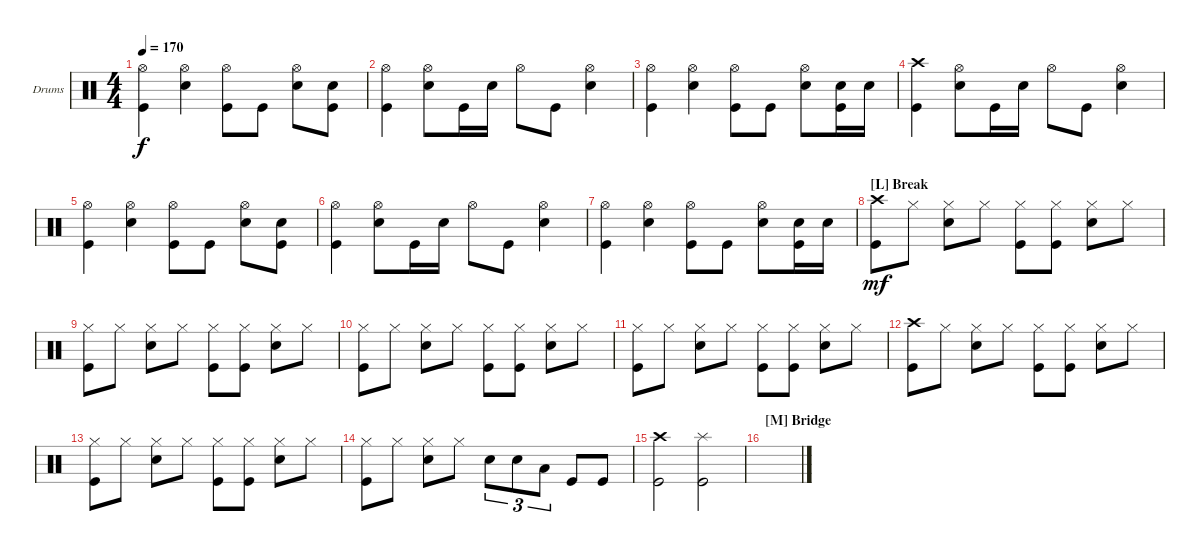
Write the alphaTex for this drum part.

\defaultSystemsLayout 4
\bracketExtendMode groupsimilarinstruments
\firstSystemTrackNameOrientation horizontal
\otherSystemsTrackNameOrientation horizontal
\track ("Drumkit" "Drums") {instrument percussion}
\staff {score}
\articulation defaults
\ts (4 4)
\tempo 170
\clef neutral
\ks c
("Hi-Hat (open)" "Kick (hit)").4{dy f} ("Hi-Hat (open)" "Snare (hit) 2").4 ("Hi-Hat (open)" "Kick (hit)").8 "Kick (hit)".8 ("Hi-Hat (open)" "Snare (hit) 2").8 ("Snare (hit) 2" "Kick (hit)").8 |
("Hi-Hat (open)" "Kick (hit)").4 ("Hi-Hat (open)" "Snare (hit) 2").8 "Kick (hit)".16 "Snare (hit) 2".16 "Hi-Hat (open)".8 "Kick (hit)".8 ("Hi-Hat (open)" "Snare (hit) 2").4 |
("Hi-Hat (open)" "Kick (hit)").4 ("Hi-Hat (open)" "Snare (hit) 2").4 ("Hi-Hat (open)" "Kick (hit)").8 "Kick (hit)".8 ("Hi-Hat (open)" "Snare (hit) 2").8 ("Snare (hit) 2" "Kick (hit)").16 "Snare (hit) 2".16 |
("Crash high (hit)" "Kick (hit)").4 ("Hi-Hat (open)" "Snare (hit) 2").8 "Kick (hit)".16 "Snare (hit) 2".16 "Hi-Hat (open)".8 "Kick (hit)".8 ("Hi-Hat (open)" "Snare (hit) 2").4 |
("Hi-Hat (open)" "Kick (hit)").4 ("Hi-Hat (open)" "Snare (hit) 2").4 ("Hi-Hat (open)" "Kick (hit)").8 "Kick (hit)".8 ("Hi-Hat (open)" "Snare (hit) 2").8 ("Snare (hit) 2" "Kick (hit)").8 |
("Hi-Hat (open)" "Kick (hit)").4 ("Hi-Hat (open)" "Snare (hit) 2").8 "Kick (hit)".16 "Snare (hit) 2".16 "Hi-Hat (open)".8 "Kick (hit)".8 ("Hi-Hat (open)" "Snare (hit) 2").4 |
("Hi-Hat (open)" "Kick (hit)").4 ("Hi-Hat (open)" "Snare (hit) 2").4 ("Hi-Hat (open)" "Kick (hit)").8 "Kick (hit)".8 ("Hi-Hat (open)" "Snare (hit) 2").8 ("Snare (hit) 2" "Kick (hit)").16 "Snare (hit) 2".16 |
\section ("L" "Break")
("Kick (hit)" "Crash high (hit)").8{dy mf} "Hi-Hat (closed)".8 ("Hi-Hat (closed)" "Snare (hit) 2").8 "Hi-Hat (closed)".8 ("Hi-Hat (closed)" "Kick (hit)").8 ("Hi-Hat (closed)" "Kick (hit)").8 ("Hi-Hat (closed)" "Snare (hit) 2").8 "Hi-Hat (closed)".8 |
("Kick (hit)" "Hi-Hat (closed)").8 "Hi-Hat (closed)".8 ("Hi-Hat (closed)" "Snare (hit) 2").8 "Hi-Hat (closed)".8 ("Hi-Hat (closed)" "Kick (hit)").8 ("Hi-Hat (closed)" "Kick (hit)").8 ("Hi-Hat (closed)" "Snare (hit) 2").8 "Hi-Hat (closed)".8 |
("Kick (hit)" "Hi-Hat (closed)").8 "Hi-Hat (closed)".8 ("Hi-Hat (closed)" "Snare (hit) 2").8 "Hi-Hat (closed)".8 ("Hi-Hat (closed)" "Kick (hit)").8 ("Hi-Hat (closed)" "Kick (hit)").8 ("Hi-Hat (closed)" "Snare (hit) 2").8 "Hi-Hat (closed)".8 |
("Kick (hit)" "Hi-Hat (closed)").8 "Hi-Hat (closed)".8 ("Hi-Hat (closed)" "Snare (hit) 2").8 "Hi-Hat (closed)".8 ("Hi-Hat (closed)" "Kick (hit)").8 ("Hi-Hat (closed)" "Kick (hit)").8 ("Hi-Hat (closed)" "Snare (hit) 2").8 "Hi-Hat (closed)".8 |
("Kick (hit)" "Crash high (hit)").8 "Hi-Hat (closed)".8 ("Hi-Hat (closed)" "Snare (hit) 2").8 "Hi-Hat (closed)".8 ("Hi-Hat (closed)" "Kick (hit)").8 ("Hi-Hat (closed)" "Kick (hit)").8 ("Hi-Hat (closed)" "Snare (hit) 2").8 "Hi-Hat (closed)".8 |
("Kick (hit)" "Hi-Hat (closed)").8 "Hi-Hat (closed)".8 ("Hi-Hat (closed)" "Snare (hit) 2").8 "Hi-Hat (closed)".8 ("Hi-Hat (closed)" "Kick (hit)").8 ("Hi-Hat (closed)" "Kick (hit)").8 ("Hi-Hat (closed)" "Snare (hit) 2").8 "Hi-Hat (closed)".8 |
("Kick (hit)" "Hi-Hat (closed)").8 "Hi-Hat (closed)".8 ("Hi-Hat (closed)" "Snare (hit) 2").8 "Hi-Hat (closed)".8 "Snare (hit) 2".8{tu (3 2)} "Snare (hit) 2".8{tu (3 2)} "Low Tom (hit)".8{tu (3 2)} "Kick (hit)".8 "Kick (hit)".8 |
("Crash high (hit)" "Kick (hit)").2 ("Splash (hit)" "Kick (hit)").2 |
\section ("M" "Bridge")
